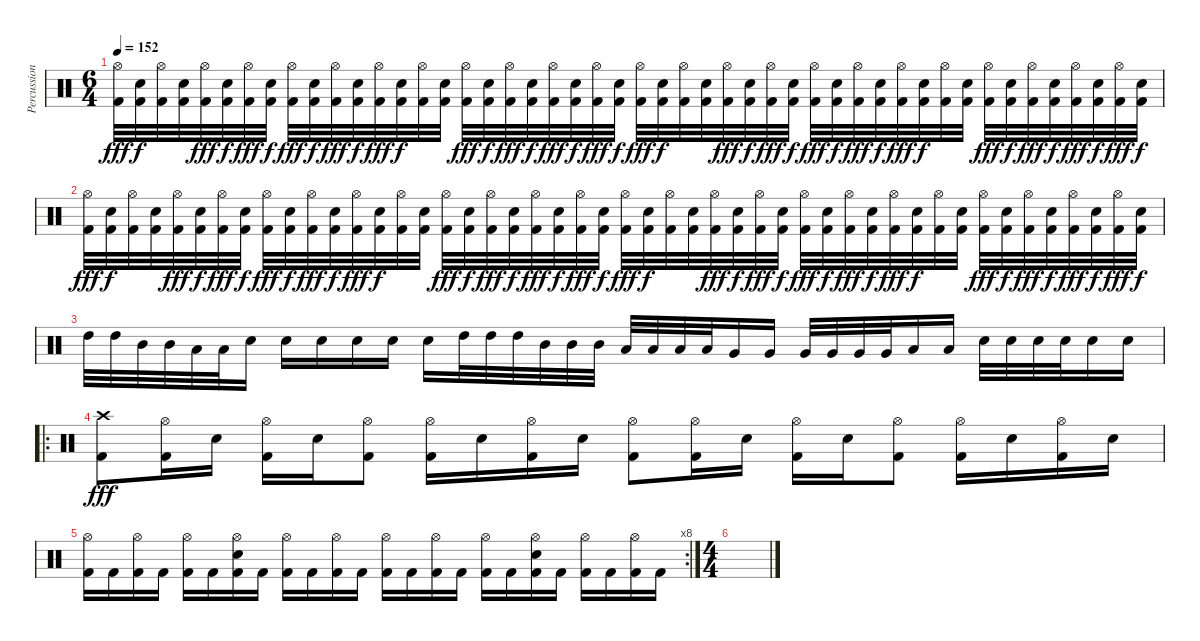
\track ("Percussion" "Percussion") {instrument percussion}
\staff {score}
\articulation defaults
\ts (6 4)
\tempo 152
\clef neutral
\ks c
("Hi-Hat (open)" "Kick (hit) 2").32{dy fff} ("Snare (hit) 2" "Kick (hit) 2").32{dy f} ("Hi-Hat (open)" "Kick (hit) 2").32 ("Snare (hit) 2" "Kick (hit) 2").32 ("Hi-Hat (open)" "Kick (hit) 2").32{dy fff} ("Snare (hit) 2" "Kick (hit) 2").32{dy f} ("Hi-Hat (open)" "Kick (hit) 2").32{dy fff} ("Snare (hit) 2" "Kick (hit) 2").32{dy f} ("Hi-Hat (open)" "Kick (hit) 2").32{dy fff} ("Snare (hit) 2" "Kick (hit) 2").32{dy f} ("Hi-Hat (open)" "Kick (hit) 2").32{dy fff} ("Snare (hit) 2" "Kick (hit) 2").32{dy f} ("Hi-Hat (open)" "Kick (hit) 2").32{dy fff} ("Snare (hit) 2" "Kick (hit) 2").32{dy f} ("Hi-Hat (open)" "Kick (hit) 2").32 ("Snare (hit) 2" "Kick (hit) 2").32 ("Hi-Hat (open)" "Kick (hit) 2").32{dy fff} ("Snare (hit) 2" "Kick (hit) 2").32{dy f} ("Hi-Hat (open)" "Kick (hit) 2").32{dy fff} ("Snare (hit) 2" "Kick (hit) 2").32{dy f} ("Hi-Hat (open)" "Kick (hit) 2").32{dy fff} ("Snare (hit) 2" "Kick (hit) 2").32{dy f} ("Hi-Hat (open)" "Kick (hit) 2").32{dy fff} ("Snare (hit) 2" "Kick (hit) 2").32{dy f} ("Hi-Hat (open)" "Kick (hit) 2").32{dy fff} ("Snare (hit) 2" "Kick (hit) 2").32{dy f} ("Hi-Hat (open)" "Kick (hit) 2").32 ("Snare (hit) 2" "Kick (hit) 2").32 ("Hi-Hat (open)" "Kick (hit) 2").32{dy fff} ("Snare (hit) 2" "Kick (hit) 2").32{dy f} ("Hi-Hat (open)" "Kick (hit) 2").32{dy fff} ("Snare (hit) 2" "Kick (hit) 2").32{dy f} ("Hi-Hat (open)" "Kick (hit) 2").32{dy fff} ("Snare (hit) 2" "Kick (hit) 2").32{dy f} ("Hi-Hat (open)" "Kick (hit) 2").32{dy fff} ("Snare (hit) 2" "Kick (hit) 2").32{dy f} ("Hi-Hat (open)" "Kick (hit) 2").32{dy fff} ("Snare (hit) 2" "Kick (hit) 2").32{dy f} ("Hi-Hat (open)" "Kick (hit) 2").32 ("Snare (hit) 2" "Kick (hit) 2").32 ("Hi-Hat (open)" "Kick (hit) 2").32{dy fff} ("Snare (hit) 2" "Kick (hit) 2").32{dy f} ("Hi-Hat (open)" "Kick (hit) 2").32{dy fff} ("Snare (hit) 2" "Kick (hit) 2").32{dy f} ("Hi-Hat (open)" "Kick (hit) 2").32{dy fff} ("Snare (hit) 2" "Kick (hit) 2").32{dy f} ("Hi-Hat (open)" "Kick (hit) 2").32{dy fff} ("Snare (hit) 2" "Kick (hit) 2").32{dy f} |
("Hi-Hat (open)" "Kick (hit) 2").32{dy fff} ("Snare (hit) 2" "Kick (hit) 2").32{dy f} ("Hi-Hat (open)" "Kick (hit) 2").32 ("Snare (hit) 2" "Kick (hit) 2").32 ("Hi-Hat (open)" "Kick (hit) 2").32{dy fff} ("Snare (hit) 2" "Kick (hit) 2").32{dy f} ("Hi-Hat (open)" "Kick (hit) 2").32{dy fff} ("Snare (hit) 2" "Kick (hit) 2").32{dy f} ("Hi-Hat (open)" "Kick (hit) 2").32{dy fff} ("Snare (hit) 2" "Kick (hit) 2").32{dy f} ("Hi-Hat (open)" "Kick (hit) 2").32{dy fff} ("Snare (hit) 2" "Kick (hit) 2").32{dy f} ("Hi-Hat (open)" "Kick (hit) 2").32{dy fff} ("Snare (hit) 2" "Kick (hit) 2").32{dy f} ("Hi-Hat (open)" "Kick (hit) 2").32 ("Snare (hit) 2" "Kick (hit) 2").32 ("Hi-Hat (open)" "Kick (hit) 2").32{dy fff} ("Snare (hit) 2" "Kick (hit) 2").32{dy f} ("Hi-Hat (open)" "Kick (hit) 2").32{dy fff} ("Snare (hit) 2" "Kick (hit) 2").32{dy f} ("Hi-Hat (open)" "Kick (hit) 2").32{dy fff} ("Snare (hit) 2" "Kick (hit) 2").32{dy f} ("Hi-Hat (open)" "Kick (hit) 2").32{dy fff} ("Snare (hit) 2" "Kick (hit) 2").32{dy f} ("Hi-Hat (open)" "Kick (hit) 2").32{dy fff} ("Snare (hit) 2" "Kick (hit) 2").32{dy f} ("Hi-Hat (open)" "Kick (hit) 2").32 ("Snare (hit) 2" "Kick (hit) 2").32 ("Hi-Hat (open)" "Kick (hit) 2").32{dy fff} ("Snare (hit) 2" "Kick (hit) 2").32{dy f} ("Hi-Hat (open)" "Kick (hit) 2").32{dy fff} ("Snare (hit) 2" "Kick (hit) 2").32{dy f} ("Hi-Hat (open)" "Kick (hit) 2").32{dy fff} ("Snare (hit) 2" "Kick (hit) 2").32{dy f} ("Hi-Hat (open)" "Kick (hit) 2").32{dy fff} ("Snare (hit) 2" "Kick (hit) 2").32{dy f} ("Hi-Hat (open)" "Kick (hit) 2").32{dy fff} ("Snare (hit) 2" "Kick (hit) 2").32{dy f} ("Hi-Hat (open)" "Kick (hit) 2").32 ("Snare (hit) 2" "Kick (hit) 2").32 ("Hi-Hat (open)" "Kick (hit) 2").32{dy fff} ("Snare (hit) 2" "Kick (hit) 2").32{dy f} ("Hi-Hat (open)" "Kick (hit) 2").32{dy fff} ("Snare (hit) 2" "Kick (hit) 2").32{dy f} ("Hi-Hat (open)" "Kick (hit) 2").32{dy fff} ("Snare (hit) 2" "Kick (hit) 2").32{dy f} ("Hi-Hat (open)" "Kick (hit) 2").32{dy fff} ("Snare (hit) 2" "Kick (hit) 2").32{dy f} |
"High Tom (hit)".32 "High Tom (hit)".32 "Mid Tom (hit)".32 "Mid Tom (hit)".32 "Low Tom (hit)".32 "Low Tom (hit)".32 "Snare (hit) 2".16 "Snare (hit) 2".16 "Snare (hit) 2".16 "Snare (hit) 2".16 "Snare (hit) 2".16 "Snare (hit) 2".16 "High Tom (hit)".32 "High Tom (hit)".32 "High Tom (hit)".32 "Mid Tom (hit)".32 "Mid Tom (hit)".32 "Mid Tom (hit)".32 "Low Tom (hit)".32 "Low Tom (hit)".32 "Low Tom (hit)".32 "Low Tom (hit)".32 "Very Low Tom (hit)".16 "Very Low Tom (hit)".16 "Very Low Tom (hit)".32 "Very Low Tom (hit)".32 "Very Low Tom (hit)".32 "Very Low Tom (hit)".32 "Low Floor Tom (hit)".16 "Low Floor Tom (hit)".16 "Snare (hit) 2".32 "Snare (hit) 2".32 "Snare (hit) 2".32 "Snare (hit) 2".32 "Snare (hit) 2".16 "Snare (hit) 2".16 |
\ro
("Crash high (hit)" "Kick (hit) 2").8{dy fff} ("Hi-Hat (open)" "Kick (hit) 2").16 "Snare (hit) 2".16 ("Hi-Hat (open)" "Kick (hit) 2").16 "Snare (hit) 2".16 ("Hi-Hat (open)" "Kick (hit) 2").8 ("Hi-Hat (open)" "Kick (hit) 2").16 "Snare (hit) 2".16 ("Hi-Hat (open)" "Kick (hit) 2").16 "Snare (hit) 2".16 ("Hi-Hat (open)" "Kick (hit) 2").8 ("Hi-Hat (open)" "Kick (hit) 2").16 "Snare (hit) 2".16 ("Hi-Hat (open)" "Kick (hit) 2").16 "Snare (hit) 2".16 ("Hi-Hat (open)" "Kick (hit) 2").8 ("Hi-Hat (open)" "Kick (hit) 2").16 "Snare (hit) 2".16 ("Hi-Hat (open)" "Kick (hit) 2").16 "Snare (hit) 2".16 |
\rc 8
("Hi-Hat (open)" "Kick (hit) 2").16 "Kick (hit) 2".16 ("Hi-Hat (open)" "Kick (hit) 2").16 "Kick (hit) 2".16 ("Hi-Hat (open)" "Kick (hit) 2").16 "Kick (hit) 2".16 ("Hi-Hat (open)" "Kick (hit) 2" "Snare (hit) 2").16 "Kick (hit) 2".16 ("Hi-Hat (open)" "Kick (hit) 2").16 "Kick (hit) 2".16 ("Hi-Hat (open)" "Kick (hit) 2").16 "Kick (hit) 2".16 ("Hi-Hat (open)" "Kick (hit) 2").16 "Kick (hit) 2".16 ("Hi-Hat (open)" "Kick (hit) 2").16 "Kick (hit) 2".16 ("Hi-Hat (open)" "Kick (hit) 2").16 "Kick (hit) 2".16 ("Hi-Hat (open)" "Kick (hit) 2" "Snare (hit) 2").16 "Kick (hit) 2".16 ("Hi-Hat (open)" "Kick (hit) 2").16 "Kick (hit) 2".16 ("Hi-Hat (open)" "Kick (hit) 2").16 "Kick (hit) 2".16 |
\ts (4 4)
